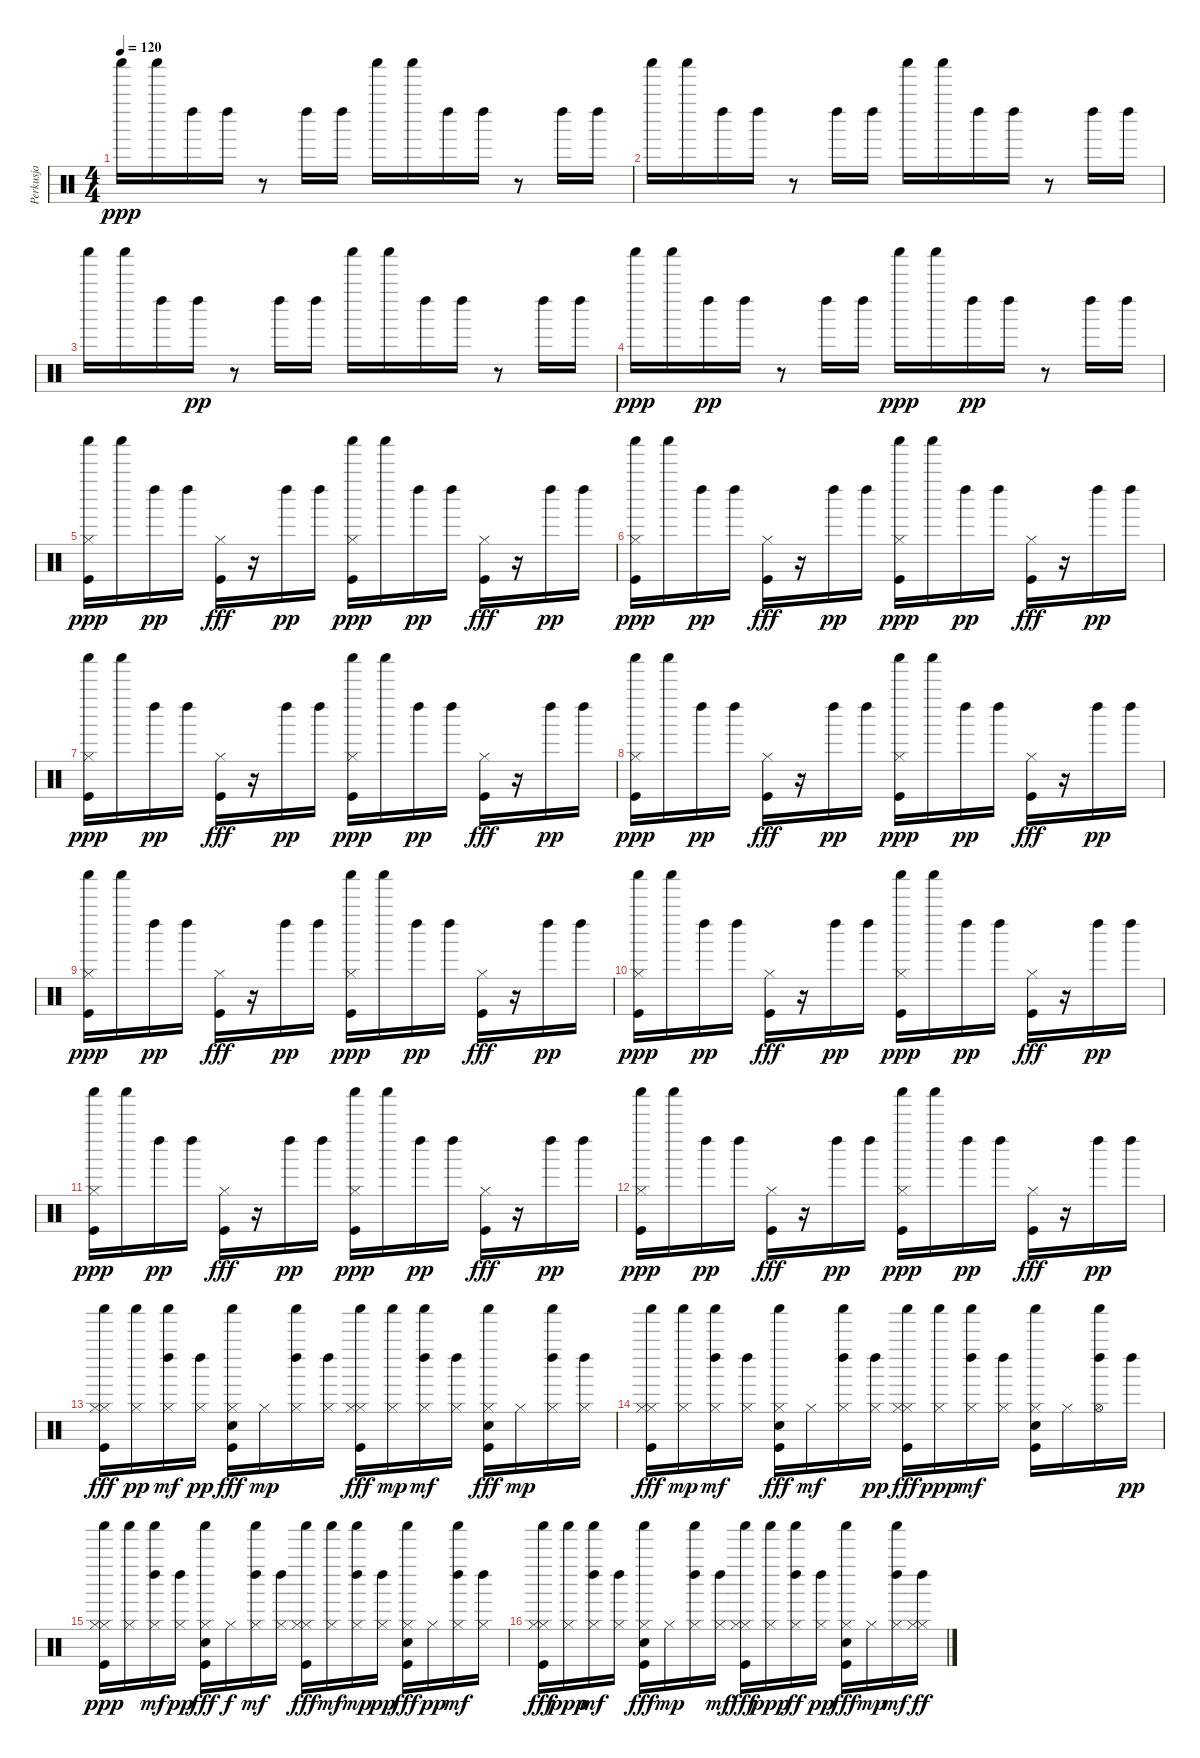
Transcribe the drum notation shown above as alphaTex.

\track ("Perkusja" "Perkusja") {instrument percussion}
\staff {score}
\articulation defaults
\ts (4 4)
\tempo 120
\clef neutral
\ks c "Shaker (hit)".16{dy ppp} "Shaker (hit)".16 "Left Maraca (hit)".16 "Left Maraca (hit)".16
r.8 "Left Maraca (hit)".16 "Left Maraca (hit)".16 "Shaker (hit)".16 "Shaker (hit)".16 "Left Maraca (hit)".16 "Left Maraca (hit)".16 r.8 "Left Maraca (hit)".16 "Left Maraca (hit)".16 |
"Shaker (hit)".16 "Shaker (hit)".16 "Left Maraca (hit)".16 "Left Maraca (hit)".16 r.8 "Left Maraca (hit)".16 "Left Maraca (hit)".16 "Shaker (hit)".16 "Shaker (hit)".16 "Left Maraca (hit)".16 "Left Maraca (hit)".16 r.8 "Left Maraca (hit)".16 "Left Maraca (hit)".16 |
"Shaker (hit)".16 "Shaker (hit)".16 "Left Maraca (hit)".16 "Left Maraca (hit)".16{dy pp} r.8 "Left Maraca (hit)".16 "Left Maraca (hit)".16 "Shaker (hit)".16 "Shaker (hit)".16 "Left Maraca (hit)".16 "Left Maraca (hit)".16 r.8 "Left Maraca (hit)".16 "Left Maraca (hit)".16 |
"Shaker (hit)".16{dy ppp} "Shaker (hit)".16 "Left Maraca (hit)".16{dy pp} "Left Maraca (hit)".16 r.8 "Left Maraca (hit)".16 "Left Maraca (hit)".16 "Shaker (hit)".16{dy ppp} "Shaker (hit)".16 "Left Maraca (hit)".16{dy pp} "Left Maraca (hit)".16 r.8 "Left Maraca (hit)".16 "Left Maraca (hit)".16 |
("Hi-Hat (closed)" "Kick (hit)" "Shaker (hit)").16{dy ppp} "Shaker (hit)".16 "Left Maraca (hit)".16{dy pp} "Left Maraca (hit)".16 ("Hi-Hat (closed)" "Kick (hit)").16{dy fff} r.16 "Left Maraca (hit)".16{dy pp} "Left Maraca (hit)".16 ("Hi-Hat (closed)" "Kick (hit)" "Shaker (hit)").16{dy ppp} "Shaker (hit)".16 "Left Maraca (hit)".16{dy pp} "Left Maraca (hit)".16 ("Hi-Hat (closed)" "Kick (hit)").16{dy fff} r.16 "Left Maraca (hit)".16{dy pp} "Left Maraca (hit)".16 |
("Hi-Hat (closed)" "Kick (hit)" "Shaker (hit)").16{dy ppp} "Shaker (hit)".16 "Left Maraca (hit)".16{dy pp} "Left Maraca (hit)".16 ("Hi-Hat (closed)" "Kick (hit)").16{dy fff} r.16 "Left Maraca (hit)".16{dy pp} "Left Maraca (hit)".16 ("Hi-Hat (closed)" "Kick (hit)" "Shaker (hit)").16{dy ppp} "Shaker (hit)".16 "Left Maraca (hit)".16{dy pp} "Left Maraca (hit)".16 ("Hi-Hat (closed)" "Kick (hit)").16{dy fff} r.16 "Left Maraca (hit)".16{dy pp} "Left Maraca (hit)".16 |
("Hi-Hat (closed)" "Kick (hit)" "Shaker (hit)").16{dy ppp} "Shaker (hit)".16 "Left Maraca (hit)".16{dy pp} "Left Maraca (hit)".16 ("Hi-Hat (closed)" "Kick (hit)").16{dy fff} r.16 "Left Maraca (hit)".16{dy pp} "Left Maraca (hit)".16 ("Hi-Hat (closed)" "Kick (hit)" "Shaker (hit)").16{dy ppp} "Shaker (hit)".16 "Left Maraca (hit)".16{dy pp} "Left Maraca (hit)".16 ("Hi-Hat (closed)" "Kick (hit)").16{dy fff} r.16 "Left Maraca (hit)".16{dy pp} "Left Maraca (hit)".16 |
("Hi-Hat (closed)" "Kick (hit)" "Shaker (hit)").16{dy ppp} "Shaker (hit)".16 "Left Maraca (hit)".16{dy pp} "Left Maraca (hit)".16 ("Hi-Hat (closed)" "Kick (hit)").16{dy fff} r.16 "Left Maraca (hit)".16{dy pp} "Left Maraca (hit)".16 ("Hi-Hat (closed)" "Kick (hit)" "Shaker (hit)").16{dy ppp} "Shaker (hit)".16 "Left Maraca (hit)".16{dy pp} "Left Maraca (hit)".16 ("Hi-Hat (closed)" "Kick (hit)").16{dy fff} r.16 "Left Maraca (hit)".16{dy pp} "Left Maraca (hit)".16 |
("Hi-Hat (closed)" "Kick (hit)" "Shaker (hit)").16{dy ppp} "Shaker (hit)".16 "Left Maraca (hit)".16{dy pp} "Left Maraca (hit)".16 ("Hi-Hat (closed)" "Kick (hit)").16{dy fff} r.16 "Left Maraca (hit)".16{dy pp} "Left Maraca (hit)".16 ("Hi-Hat (closed)" "Kick (hit)" "Shaker (hit)").16{dy ppp} "Shaker (hit)".16 "Left Maraca (hit)".16{dy pp} "Left Maraca (hit)".16 ("Hi-Hat (closed)" "Kick (hit)").16{dy fff} r.16 "Left Maraca (hit)".16{dy pp} "Left Maraca (hit)".16 |
("Hi-Hat (closed)" "Kick (hit)" "Shaker (hit)").16{dy ppp} "Shaker (hit)".16 "Left Maraca (hit)".16{dy pp} "Left Maraca (hit)".16 ("Hi-Hat (closed)" "Kick (hit)").16{dy fff} r.16 "Left Maraca (hit)".16{dy pp} "Left Maraca (hit)".16 ("Hi-Hat (closed)" "Kick (hit)" "Shaker (hit)").16{dy ppp} "Shaker (hit)".16 "Left Maraca (hit)".16{dy pp} "Left Maraca (hit)".16 ("Hi-Hat (closed)" "Kick (hit)").16{dy fff} r.16 "Left Maraca (hit)".16{dy pp} "Left Maraca (hit)".16 |
("Hi-Hat (closed)" "Kick (hit)" "Shaker (hit)").16{dy ppp} "Shaker (hit)".16 "Left Maraca (hit)".16{dy pp} "Left Maraca (hit)".16 ("Hi-Hat (closed)" "Kick (hit)").16{dy fff} r.16 "Left Maraca (hit)".16{dy pp} "Left Maraca (hit)".16 ("Hi-Hat (closed)" "Kick (hit)" "Shaker (hit)").16{dy ppp} "Shaker (hit)".16 "Left Maraca (hit)".16{dy pp} "Left Maraca (hit)".16 ("Hi-Hat (closed)" "Kick (hit)").16{dy fff} r.16 "Left Maraca (hit)".16{dy pp} "Left Maraca (hit)".16 |
("Hi-Hat (closed)" "Kick (hit)" "Shaker (hit)").16{dy ppp} "Shaker (hit)".16 "Left Maraca (hit)".16{dy pp} "Left Maraca (hit)".16 ("Hi-Hat (closed)" "Kick (hit)").16{dy fff} r.16 "Left Maraca (hit)".16{dy pp} "Left Maraca (hit)".16 ("Hi-Hat (closed)" "Kick (hit)" "Shaker (hit)").16{dy ppp} "Shaker (hit)".16 "Left Maraca (hit)".16{dy pp} "Left Maraca (hit)".16 ("Hi-Hat (closed)" "Kick (hit)").16{dy fff} r.16 "Left Maraca (hit)".16{dy pp} "Left Maraca (hit)".16 |
("Hi-Hat (closed)" "Kick (hit)" "Shaker (hit)" "Hi-Hat (closed)").16{dy fff} ("Shaker (hit)" "Hi-Hat (closed)").16{dy pp} ("Hi-Hat (closed)" "Left Maraca (hit)" "Shaker (hit)").16{dy mf} ("Hi-Hat (closed)" "Left Maraca (hit)").16{dy pp} ("Hi-Hat (closed)" "Kick (hit)" "Shaker (hit)" "Hand Clap (hit)").16{dy fff} "Hi-Hat (closed)".16{dy mp} ("Hi-Hat (closed)" "Left Maraca (hit)" "Shaker (hit)").16 ("Left Maraca (hit)" "Hi-Hat (closed)").16 ("Hi-Hat (closed)" "Kick (hit)" "Shaker (hit)" "Hi-Hat (closed)").16{dy fff} ("Shaker (hit)" "Hi-Hat (closed)").16{dy mp} ("Left Maraca (hit)" "Shaker (hit)" "Hi-Hat (closed)").16{dy mf} ("Left Maraca (hit)" "Hi-Hat (closed)").16 ("Kick (hit)" "Hand Clap (hit)" "Shaker (hit)" "Hi-Hat (closed)").16{dy fff} "Hi-Hat (closed)".16{dy mp} ("Left Maraca (hit)" "Shaker (hit)" "Hi-Hat (closed)").16 ("Left Maraca (hit)" "Hi-Hat (closed)").16 |
("Hi-Hat (closed)" "Kick (hit)" "Shaker (hit)" "Hi-Hat (closed)").16{dy fff} ("Shaker (hit)" "Hi-Hat (closed)").16{dy mp} ("Hi-Hat (closed)" "Left Maraca (hit)" "Shaker (hit)").16{dy mf} ("Left Maraca (hit)" "Hi-Hat (closed)").16 ("Kick (hit)" "Shaker (hit)" "Hand Clap (hit)" "Hi-Hat (closed)").16{dy fff} "Hi-Hat (closed)".16{dy mf} ("Hi-Hat (closed)" "Left Maraca (hit)" "Shaker (hit)").16 ("Hi-Hat (closed)" "Left Maraca (hit)").16{dy pp} ("Hi-Hat (closed)" "Kick (hit)" "Shaker (hit)" "Hi-Hat (closed)").16{dy fff} ("Hi-Hat (closed)" "Shaker (hit)").16{dy ppp} ("Hi-Hat (closed)" "Left Maraca (hit)" "Shaker (hit)").16{dy mf} ("Left Maraca (hit)" "Hi-Hat (closed)").16 ("Kick (hit)" "Hand Clap (hit)" "Hi-Hat (closed)" "Shaker (hit)").16 "Hi-Hat (closed)".16 ("Hi-Hat (open)" "Left Maraca (hit)" "Shaker (hit)").16 "Left Maraca (hit)".16{dy pp} |
("Hi-Hat (closed)" "Hi-Hat (closed)" "Kick (hit)" "Shaker (hit)").16{dy ppp} ("Hi-Hat (closed)" "Shaker (hit)").16 ("Left Maraca (hit)" "Shaker (hit)" "Hi-Hat (closed)").16{dy mf} ("Hi-Hat (closed)" "Left Maraca (hit)").16{dy pp} ("Kick (hit)" "Hand Clap (hit)" "Shaker (hit)" "Hi-Hat (closed)").16{dy fff} "Hi-Hat (closed)".16{dy f} ("Left Maraca (hit)" "Shaker (hit)" "Hi-Hat (closed)").16{dy mf} ("Left Maraca (hit)" "Hi-Hat (closed)").16 ("Hi-Hat (closed)" "Kick (hit)" "Shaker (hit)" "Hi-Hat (closed)").16{dy fff} ("Shaker (hit)" "Hi-Hat (closed)").16{dy mf} ("Left Maraca (hit)" "Shaker (hit)" "Hi-Hat (closed)").16{dy mp} ("Left Maraca (hit)" "Hi-Hat (closed)").16{dy pp} ("Kick (hit)" "Hand Clap (hit)" "Shaker (hit)" "Hi-Hat (closed)").16{dy fff} "Hi-Hat (closed)".16{dy pp} ("Left Maraca (hit)" "Shaker (hit)" "Hi-Hat (closed)").16{dy mf} ("Left Maraca (hit)" "Hi-Hat (closed)").16 |
("Hi-Hat (closed)" "Kick (hit)" "Shaker (hit)" "Hi-Hat (closed)").16{dy fff} ("Shaker (hit)" "Hi-Hat (closed)").16{dy ppp} ("Left Maraca (hit)" "Shaker (hit)" "Hi-Hat (closed)").16{dy mf} ("Left Maraca (hit)" "Hi-Hat (closed)").16 ("Kick (hit)" "Hand Clap (hit)" "Shaker (hit)" "Hi-Hat (closed)").16{dy fff} "Hi-Hat (closed)".16{dy mp} ("Left Maraca (hit)" "Shaker (hit)" "Hi-Hat (closed)").16 ("Left Maraca (hit)" "Hi-Hat (closed)").16{dy mf} ("Hi-Hat (closed)" "Kick (hit)" "Shaker (hit)" "Hi-Hat (closed)").16{dy fff} ("Hi-Hat (closed)" "Shaker (hit)").16{dy ppp} ("Left Maraca (hit)" "Shaker (hit)" "Hi-Hat (closed)").16{dy ff} ("Hi-Hat (closed)" "Left Maraca (hit)").16{dy pp} ("Kick (hit)" "Shaker (hit)" "Hand Clap (hit)" "Hi-Hat (closed)").16{dy fff} "Hi-Hat (closed)".16{dy mp} ("Hi-Hat (closed)" "Left Maraca (hit)" "Shaker (hit)").16{dy mf} ("Hi-Hat (closed)" "Left Maraca (hit)" "Hi-Hat (closed)").16{dy ff}
